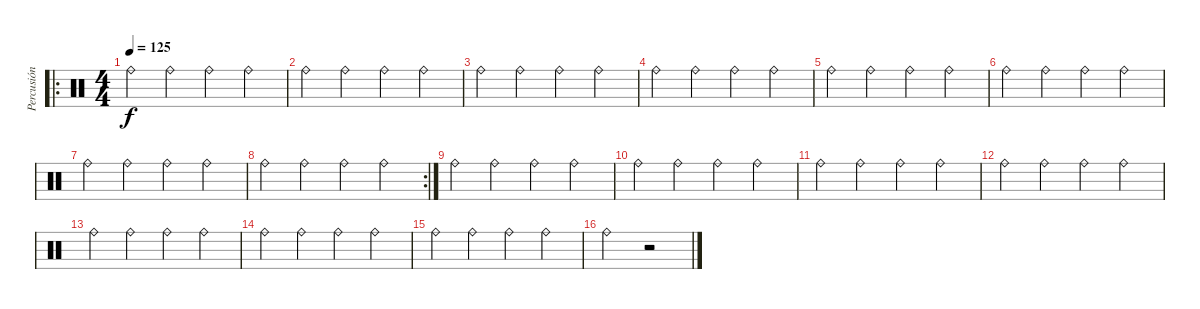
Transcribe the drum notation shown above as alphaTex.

\track ("Percusión" "Percusión") {instrument percussion}
\staff {score}
\articulation defaults
\ro
\ts (4 4)
\tempo 125
\clef neutral
\ks c "Ride (bell)".4{dy f} "Ride (bell)".4 "Ride (bell)".4 "Ride (bell)".4
|
"Ride (bell)".4 "Ride (bell)".4 "Ride (bell)".4 "Ride (bell)".4 |
"Ride (bell)".4 "Ride (bell)".4 "Ride (bell)".4 "Ride (bell)".4 |
"Ride (bell)".4 "Ride (bell)".4 "Ride (bell)".4 "Ride (bell)".4 |
"Ride (bell)".4 "Ride (bell)".4 "Ride (bell)".4 "Ride (bell)".4 |
"Ride (bell)".4 "Ride (bell)".4 "Ride (bell)".4 "Ride (bell)".4 |
"Ride (bell)".4 "Ride (bell)".4 "Ride (bell)".4 "Ride (bell)".4 |
\rc 2 "Ride (bell)".4 "Ride (bell)".4 "Ride (bell)".4 "Ride (bell)".4
|
"Ride (bell)".4 "Ride (bell)".4 "Ride (bell)".4 "Ride (bell)".4 |
"Ride (bell)".4 "Ride (bell)".4 "Ride (bell)".4 "Ride (bell)".4 |
"Ride (bell)".4 "Ride (bell)".4 "Ride (bell)".4 "Ride (bell)".4 |
"Ride (bell)".4 "Ride (bell)".4 "Ride (bell)".4 "Ride (bell)".4 |
"Ride (bell)".4 "Ride (bell)".4 "Ride (bell)".4 "Ride (bell)".4 |
"Ride (bell)".4 "Ride (bell)".4 "Ride (bell)".4 "Ride (bell)".4 |
"Ride (bell)".4 "Ride (bell)".4 "Ride (bell)".4 "Ride (bell)".4 |
"Ride (bell)".2 r.2
